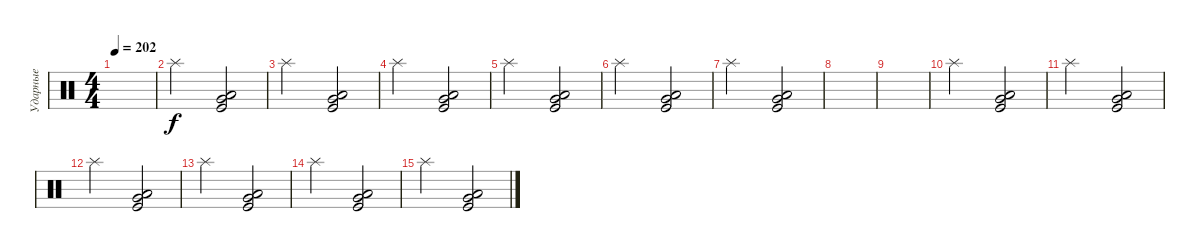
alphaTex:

\track ("Ударные" "Ударные") {instrument percussion}
\staff {score}
\articulation defaults
\ts (4 4)
\tempo 202
\clef neutral
\ks c
|
"Splash (hit)".2 ("Low Tom (hit)" "Very Low Tom (hit)" "Kick (hit)").2 |
"Splash (hit)".2 ("Low Tom (hit)" "Very Low Tom (hit)" "Kick (hit)").2 |
"Splash (hit)".2 ("Low Tom (hit)" "Very Low Tom (hit)" "Kick (hit)").2 |
"Splash (hit)".2 ("Low Tom (hit)" "Very Low Tom (hit)" "Kick (hit)").2 |
"Splash (hit)".2 ("Low Tom (hit)" "Very Low Tom (hit)" "Kick (hit)").2 |
"Splash (hit)".2 ("Low Tom (hit)" "Very Low Tom (hit)" "Kick (hit)").2 |
|
|
"Splash (hit)".2 ("Low Tom (hit)" "Very Low Tom (hit)" "Kick (hit)").2 |
"Splash (hit)".2 ("Low Tom (hit)" "Very Low Tom (hit)" "Kick (hit)").2 |
"Splash (hit)".2 ("Low Tom (hit)" "Very Low Tom (hit)" "Kick (hit)").2 |
"Splash (hit)".2 ("Low Tom (hit)" "Very Low Tom (hit)" "Kick (hit)").2 |
"Splash (hit)".2 ("Low Tom (hit)" "Very Low Tom (hit)" "Kick (hit)").2 |
"Splash (hit)".2 ("Low Tom (hit)" "Very Low Tom (hit)" "Kick (hit)").2
